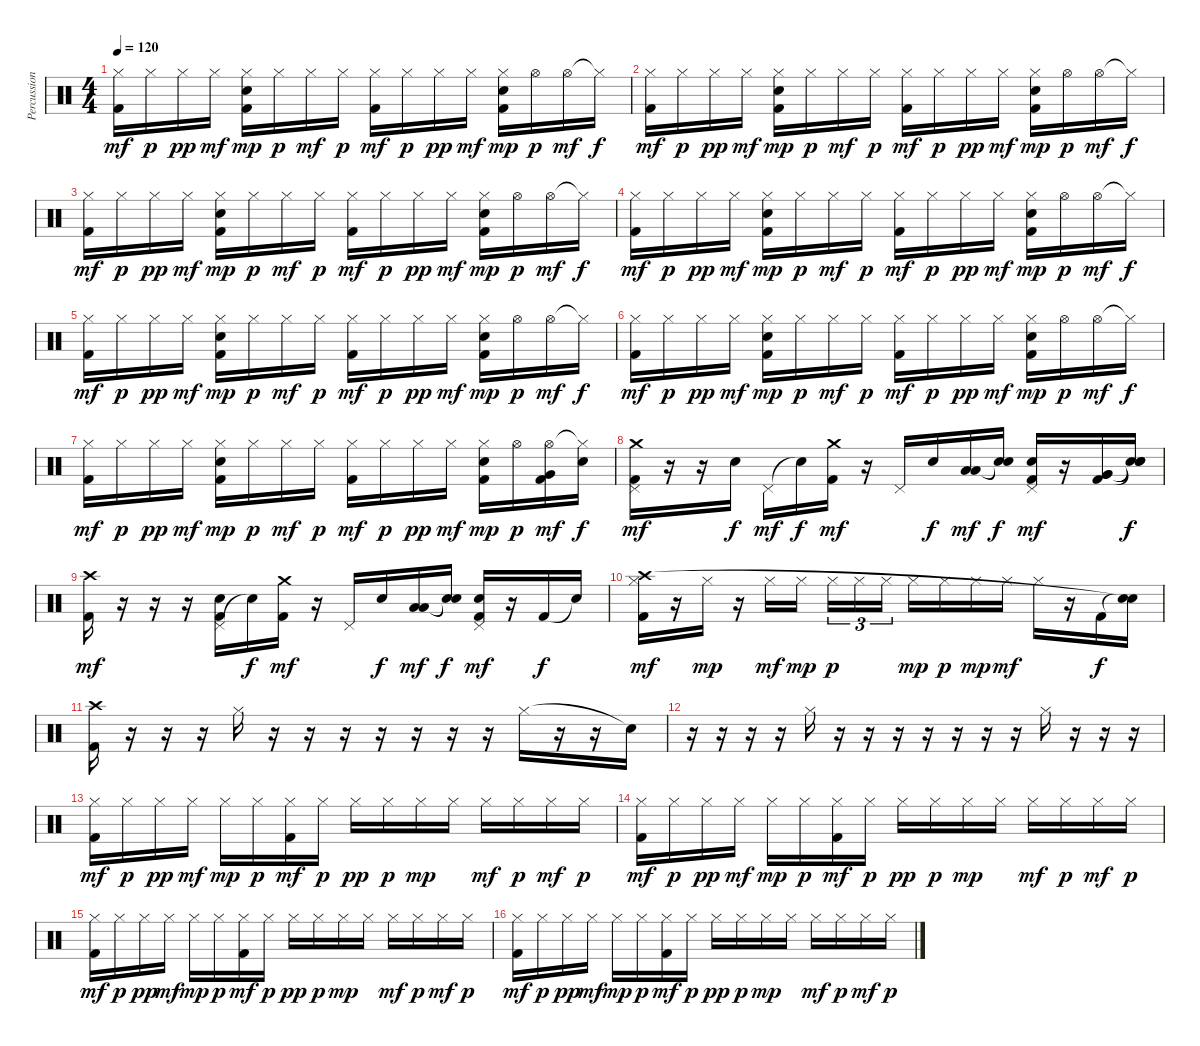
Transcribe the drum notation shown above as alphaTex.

\track ("Percussion" "Percussion") {instrument percussion}
\staff {score}
\articulation defaults
\ts (4 4)
\tempo 120
\clef neutral
\ks c
("Hi-Hat (closed)" "Kick (hit) 2").16{dy mf} "Hi-Hat (closed)".16{dy p} "Hi-Hat (closed)".16{dy pp} "Hi-Hat (closed)".16{dy mf} ("Hi-Hat (closed)" "Electric Snare (hit)" "Kick (hit) 2").16{dy mp} "Hi-Hat (closed)".16{dy p} "Hi-Hat (closed)".16{dy mf} "Hi-Hat (closed)".16{dy p} ("Hi-Hat (closed)" "Kick (hit) 2").16{dy mf} "Hi-Hat (closed)".16{dy p} "Hi-Hat (closed)".16{dy pp} "Hi-Hat (closed)".16{dy mf} ("Hi-Hat (closed)" "Electric Snare (hit)" "Kick (hit) 2").16{dy mp} "Hi-Hat (open)".16{dy p} "Hi-Hat (open)".16{dy mf} "Hi-Hat (closed)"{t}.16{dy f} |
("Hi-Hat (closed)" "Kick (hit) 2").16{dy mf} "Hi-Hat (closed)".16{dy p} "Hi-Hat (closed)".16{dy pp} "Hi-Hat (closed)".16{dy mf} ("Hi-Hat (closed)" "Electric Snare (hit)" "Kick (hit) 2").16{dy mp} "Hi-Hat (closed)".16{dy p} "Hi-Hat (closed)".16{dy mf} "Hi-Hat (closed)".16{dy p} ("Hi-Hat (closed)" "Kick (hit) 2").16{dy mf} "Hi-Hat (closed)".16{dy p} "Hi-Hat (closed)".16{dy pp} "Hi-Hat (closed)".16{dy mf} ("Hi-Hat (closed)" "Electric Snare (hit)" "Kick (hit) 2").16{dy mp} "Hi-Hat (open)".16{dy p} "Hi-Hat (open)".16{dy mf} "Hi-Hat (closed)"{t}.16{dy f} |
("Hi-Hat (closed)" "Kick (hit) 2").16{dy mf} "Hi-Hat (closed)".16{dy p} "Hi-Hat (closed)".16{dy pp} "Hi-Hat (closed)".16{dy mf} ("Hi-Hat (closed)" "Electric Snare (hit)" "Kick (hit) 2").16{dy mp} "Hi-Hat (closed)".16{dy p} "Hi-Hat (closed)".16{dy mf} "Hi-Hat (closed)".16{dy p} ("Hi-Hat (closed)" "Kick (hit) 2").16{dy mf} "Hi-Hat (closed)".16{dy p} "Hi-Hat (closed)".16{dy pp} "Hi-Hat (closed)".16{dy mf} ("Hi-Hat (closed)" "Electric Snare (hit)" "Kick (hit) 2").16{dy mp} "Hi-Hat (open)".16{dy p} "Hi-Hat (open)".16{dy mf} "Hi-Hat (closed)"{t}.16{dy f} |
("Hi-Hat (closed)" "Kick (hit) 2").16{dy mf} "Hi-Hat (closed)".16{dy p} "Hi-Hat (closed)".16{dy pp} "Hi-Hat (closed)".16{dy mf} ("Hi-Hat (closed)" "Electric Snare (hit)" "Kick (hit) 2").16{dy mp} "Hi-Hat (closed)".16{dy p} "Hi-Hat (closed)".16{dy mf} "Hi-Hat (closed)".16{dy p} ("Hi-Hat (closed)" "Kick (hit) 2").16{dy mf} "Hi-Hat (closed)".16{dy p} "Hi-Hat (closed)".16{dy pp} "Hi-Hat (closed)".16{dy mf} ("Hi-Hat (closed)" "Electric Snare (hit)" "Kick (hit) 2").16{dy mp} "Hi-Hat (open)".16{dy p} "Hi-Hat (open)".16{dy mf} "Hi-Hat (closed)"{t}.16{dy f} |
("Hi-Hat (closed)" "Kick (hit) 2").16{dy mf} "Hi-Hat (closed)".16{dy p} "Hi-Hat (closed)".16{dy pp} "Hi-Hat (closed)".16{dy mf} ("Hi-Hat (closed)" "Electric Snare (hit)" "Kick (hit) 2").16{dy mp} "Hi-Hat (closed)".16{dy p} "Hi-Hat (closed)".16{dy mf} "Hi-Hat (closed)".16{dy p} ("Hi-Hat (closed)" "Kick (hit) 2").16{dy mf} "Hi-Hat (closed)".16{dy p} "Hi-Hat (closed)".16{dy pp} "Hi-Hat (closed)".16{dy mf} ("Hi-Hat (closed)" "Electric Snare (hit)" "Kick (hit) 2").16{dy mp} "Hi-Hat (open)".16{dy p} "Hi-Hat (open)".16{dy mf} "Hi-Hat (closed)"{t}.16{dy f} |
("Hi-Hat (closed)" "Kick (hit) 2").16{dy mf} "Hi-Hat (closed)".16{dy p} "Hi-Hat (closed)".16{dy pp} "Hi-Hat (closed)".16{dy mf} ("Hi-Hat (closed)" "Electric Snare (hit)" "Kick (hit) 2").16{dy mp} "Hi-Hat (closed)".16{dy p} "Hi-Hat (closed)".16{dy mf} "Hi-Hat (closed)".16{dy p} ("Hi-Hat (closed)" "Kick (hit) 2").16{dy mf} "Hi-Hat (closed)".16{dy p} "Hi-Hat (closed)".16{dy pp} "Hi-Hat (closed)".16{dy mf} ("Hi-Hat (closed)" "Electric Snare (hit)" "Kick (hit) 2").16{dy mp} "Hi-Hat (open)".16{dy p} "Hi-Hat (open)".16{dy mf} "Hi-Hat (closed)"{t}.16{dy f} |
("Hi-Hat (closed)" "Kick (hit) 2").16{dy mf} "Hi-Hat (closed)".16{dy p} "Hi-Hat (closed)".16{dy pp} "Hi-Hat (closed)".16{dy mf} ("Hi-Hat (closed)" "Electric Snare (hit)" "Kick (hit) 2").16{dy mp} "Hi-Hat (closed)".16{dy p} "Hi-Hat (closed)".16{dy mf} "Hi-Hat (closed)".16{dy p} ("Hi-Hat (closed)" "Kick (hit) 2").16{dy mf} "Hi-Hat (closed)".16{dy p} "Hi-Hat (closed)".16{dy pp} "Hi-Hat (closed)".16{dy mf} ("Hi-Hat (closed)" "Electric Snare (hit)" "Kick (hit) 2").16{dy mp} "Hi-Hat (open)".16{dy p} ("Hi-Hat (open)" "Very Low Tom (hit)" "Kick (hit) 2").16{dy mf} ("Hi-Hat (closed)"{t} "Electric Snare (hit)").16{dy f} |
("Pedal Hi-Hat (hit)" "Crash medium (hit)" "Kick (hit) 2").16{dy mf} r.16 r.16 "Electric Snare (hit)".16{dy f} "Pedal Hi-Hat (hit)".16{dy mf} "Snare (hit)"{t}.16{dy f} ("Crash medium (hit)" "Kick (hit) 2").16{dy mf} r.16 "Pedal Hi-Hat (hit)".16 "Electric Snare (hit)".16{dy f} ("Low Tom (hit)" "Low Tom (hit)").16{dy mf} ("Snare (hit)"{t} "Snare (hit)"{t}).16{dy f} ("Pedal Hi-Hat (hit)" "Electric Snare (hit)" "Kick (hit) 2").16{dy mf} r.16 ("Very Low Tom (hit)" "Very Low Tom (hit)" "Kick (hit) 2").16 ("Snare (hit)"{t} "Snare (hit)"{t} "Snare (hit)"{t}).16{dy f} |
("Crash high (hit)" "Kick (hit) 2").16{dy mf} r.16 r.16 r.16 ("Pedal Hi-Hat (hit)" "Electric Snare (hit)" "Kick (hit) 2").16 "Snare (hit)"{t}.16{dy f} ("Crash medium (hit)" "Kick (hit) 2").16{dy mf} r.16 "Pedal Hi-Hat (hit)".16 "Electric Snare (hit)".16{dy f} ("Low Tom (hit)" "Low Tom (hit)").16{dy mf} ("Snare (hit)"{t} "Snare (hit)"{t}).16{dy f} ("Pedal Hi-Hat (hit)" "Electric Snare (hit)" "Kick (hit) 2").16{dy mf} r.16 "Kick (hit) 2".16{dy f} "Snare (hit)"{t}.16 |
("Hi-Hat (closed)" "Crash high (hit)" "Kick (hit) 2").16{dy mf} r.16 "Hi-Hat (closed)".16{dy mp} r.16 "Hi-Hat (closed)".16{dy mf} "Hi-Hat (closed)".16{dy mp beam splitsecondary} "Hi-Hat (closed)".16{tu (3 2) dy p} "Hi-Hat (closed)".16{tu (3 2)} "Hi-Hat (closed)".16{tu (3 2)} "Hi-Hat (closed)".16{dy mp} "Hi-Hat (closed)".16{dy p} "Hi-Hat (closed)".16{dy mp} "Hi-Hat (closed)".16{dy mf} "Hi-Hat (closed)".16 r.16 "Kick (hit) 2".16{dy f} ("Snare (hit)"{t} "Snare (hit)"{t}).16 |
("Crash high (hit)" "Kick (hit) 2").16 r.16 r.16 r.16 "Hi-Hat (closed)".16 r.16 r.16 r.16 r.16 r.16 r.16 r.16 "Hi-Hat (closed)".16 r.16 r.16 "Snare (hit)"{t}.16 |
r.16 r.16 r.16 r.16 "Hi-Hat (closed)".16 r.16 r.16 r.16 r.16 r.16 r.16 r.16 "Hi-Hat (closed)".16 r.16 r.16 r.16 |
("Hi-Hat (closed)" "Kick (hit) 2").16{dy mf} "Hi-Hat (closed)".16{dy p} "Hi-Hat (closed)".16{dy pp} "Hi-Hat (closed)".16{dy mf} "Hi-Hat (closed)".16{dy mp} "Hi-Hat (closed)".16{dy p} ("Hi-Hat (closed)" "Kick (hit) 2").16{dy mf} "Hi-Hat (closed)".16{dy p} "Hi-Hat (closed)".16{dy pp} "Hi-Hat (closed)".16{dy p} "Hi-Hat (closed)".16{dy mp} "Hi-Hat (closed)".16 "Hi-Hat (closed)".16{dy mf} "Hi-Hat (closed)".16{dy p} "Hi-Hat (closed)".16{dy mf} "Hi-Hat (closed)".16{dy p} |
("Hi-Hat (closed)" "Kick (hit) 2").16{dy mf} "Hi-Hat (closed)".16{dy p} "Hi-Hat (closed)".16{dy pp} "Hi-Hat (closed)".16{dy mf} "Hi-Hat (closed)".16{dy mp} "Hi-Hat (closed)".16{dy p} ("Hi-Hat (closed)" "Kick (hit) 2").16{dy mf} "Hi-Hat (closed)".16{dy p} "Hi-Hat (closed)".16{dy pp} "Hi-Hat (closed)".16{dy p} "Hi-Hat (closed)".16{dy mp} "Hi-Hat (closed)".16 "Hi-Hat (closed)".16{dy mf} "Hi-Hat (closed)".16{dy p} "Hi-Hat (closed)".16{dy mf} "Hi-Hat (closed)".16{dy p} |
("Hi-Hat (closed)" "Kick (hit) 2").16{dy mf} "Hi-Hat (closed)".16{dy p} "Hi-Hat (closed)".16{dy pp} "Hi-Hat (closed)".16{dy mf} "Hi-Hat (closed)".16{dy mp} "Hi-Hat (closed)".16{dy p} ("Hi-Hat (closed)" "Kick (hit) 2").16{dy mf} "Hi-Hat (closed)".16{dy p} "Hi-Hat (closed)".16{dy pp} "Hi-Hat (closed)".16{dy p} "Hi-Hat (closed)".16{dy mp} "Hi-Hat (closed)".16 "Hi-Hat (closed)".16{dy mf} "Hi-Hat (closed)".16{dy p} "Hi-Hat (closed)".16{dy mf} "Hi-Hat (closed)".16{dy p} |
("Hi-Hat (closed)" "Kick (hit) 2").16{dy mf} "Hi-Hat (closed)".16{dy p} "Hi-Hat (closed)".16{dy pp} "Hi-Hat (closed)".16{dy mf} "Hi-Hat (closed)".16{dy mp} "Hi-Hat (closed)".16{dy p} ("Hi-Hat (closed)" "Kick (hit) 2").16{dy mf} "Hi-Hat (closed)".16{dy p} "Hi-Hat (closed)".16{dy pp} "Hi-Hat (closed)".16{dy p} "Hi-Hat (closed)".16{dy mp} "Hi-Hat (closed)".16 "Hi-Hat (closed)".16{dy mf} "Hi-Hat (closed)".16{dy p} "Hi-Hat (closed)".16{dy mf} "Hi-Hat (closed)".16{dy p}
